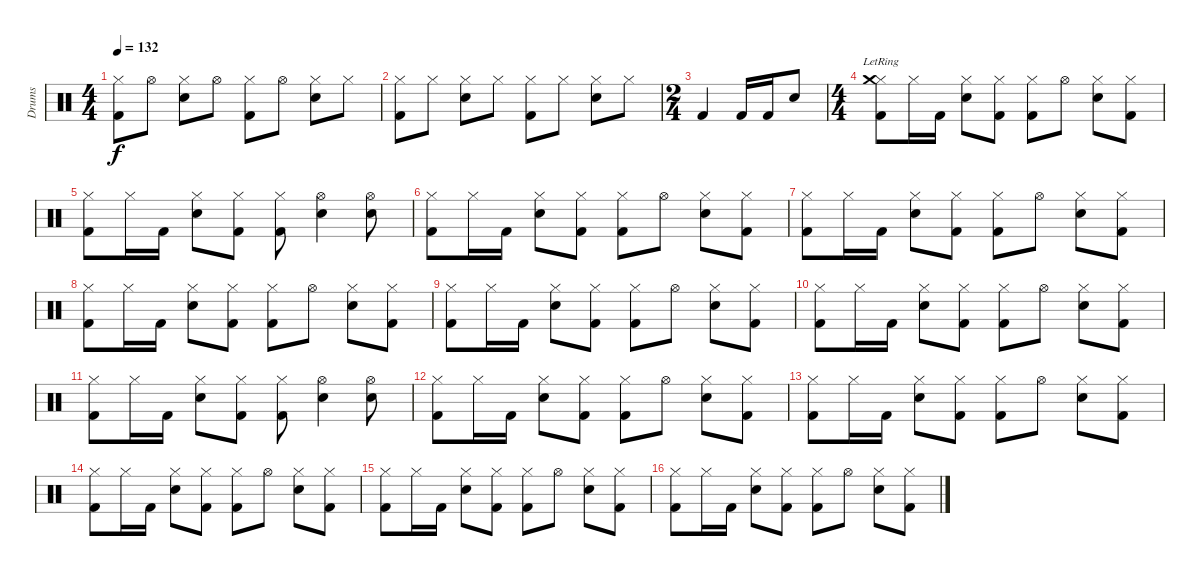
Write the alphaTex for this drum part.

\track ("Drums" "Drums") {instrument percussion}
\staff {score}
\articulation defaults
\ts (4 4)
\tempo 132
\clef neutral
\ks c
("Kick (hit) 2" "Hi-Hat (closed)").8{dy f} "Hi-Hat (open)".8 ("Electric Snare (hit)" "Hi-Hat (closed)").8 "Hi-Hat (open)".8 ("Kick (hit) 2" "Hi-Hat (closed)").8 "Hi-Hat (open)".8 ("Electric Snare (hit)" "Hi-Hat (closed)").8 "Hi-Hat (closed)".8 |
("Kick (hit) 2" "Hi-Hat (closed)").8 "Hi-Hat (closed)".8 ("Electric Snare (hit)" "Hi-Hat (closed)").8 "Hi-Hat (closed)".8 ("Kick (hit) 2" "Hi-Hat (closed)").8 "Hi-Hat (closed)".8 ("Electric Snare (hit)" "Hi-Hat (closed)").8 "Hi-Hat (closed)".8 |
\ts (2 4)
"Kick (hit) 2".4 "Kick (hit) 2".16 "Kick (hit) 2".16 "Electric Snare (hit)".8 |
\ts (4 4)
("Kick (hit) 2" "Hi-Hat (closed)" "Crash medium (hit)"{lr}).8 "Hi-Hat (closed)".16 "Kick (hit) 2".16 ("Electric Snare (hit)" "Hi-Hat (closed)").8 ("Kick (hit) 2" "Hi-Hat (closed)").8 ("Kick (hit) 2" "Hi-Hat (closed)").8 "Hi-Hat (open)".8 ("Electric Snare (hit)" "Hi-Hat (closed)").8 ("Kick (hit) 2" "Hi-Hat (closed)").8 |
("Kick (hit) 2" "Hi-Hat (closed)").8 "Hi-Hat (closed)".16 "Kick (hit) 2".16 ("Electric Snare (hit)" "Hi-Hat (closed)").8 ("Kick (hit) 2" "Hi-Hat (closed)").8 ("Kick (hit) 2" "Hi-Hat (closed)").8 ("Electric Snare (hit)" "Hi-Hat (open)").4 ("Electric Snare (hit)" "Hi-Hat (open)").8 |
("Kick (hit) 2" "Hi-Hat (closed)").8 "Hi-Hat (closed)".16 "Kick (hit) 2".16 ("Electric Snare (hit)" "Hi-Hat (closed)").8 ("Kick (hit) 2" "Hi-Hat (closed)").8 ("Kick (hit) 2" "Hi-Hat (closed)").8 "Hi-Hat (open)".8 ("Electric Snare (hit)" "Hi-Hat (closed)").8 ("Kick (hit) 2" "Hi-Hat (closed)").8 |
("Kick (hit) 2" "Hi-Hat (closed)").8 "Hi-Hat (closed)".16 "Kick (hit) 2".16 ("Electric Snare (hit)" "Hi-Hat (closed)").8 ("Kick (hit) 2" "Hi-Hat (closed)").8 ("Kick (hit) 2" "Hi-Hat (closed)").8 "Hi-Hat (open)".8 ("Electric Snare (hit)" "Hi-Hat (closed)").8 ("Kick (hit) 2" "Hi-Hat (closed)").8 |
("Kick (hit) 2" "Hi-Hat (closed)").8 "Hi-Hat (closed)".16 "Kick (hit) 2".16 ("Electric Snare (hit)" "Hi-Hat (closed)").8 ("Kick (hit) 2" "Hi-Hat (closed)").8 ("Kick (hit) 2" "Hi-Hat (closed)").8 "Hi-Hat (open)".8 ("Electric Snare (hit)" "Hi-Hat (closed)").8 ("Kick (hit) 2" "Hi-Hat (closed)").8 |
("Kick (hit) 2" "Hi-Hat (closed)").8 "Hi-Hat (closed)".16 "Kick (hit) 2".16 ("Electric Snare (hit)" "Hi-Hat (closed)").8 ("Kick (hit) 2" "Hi-Hat (closed)").8 ("Kick (hit) 2" "Hi-Hat (closed)").8 "Hi-Hat (open)".8 ("Electric Snare (hit)" "Hi-Hat (closed)").8 ("Kick (hit) 2" "Hi-Hat (closed)").8 |
("Kick (hit) 2" "Hi-Hat (closed)").8 "Hi-Hat (closed)".16 "Kick (hit) 2".16 ("Electric Snare (hit)" "Hi-Hat (closed)").8 ("Kick (hit) 2" "Hi-Hat (closed)").8 ("Kick (hit) 2" "Hi-Hat (closed)").8 "Hi-Hat (open)".8 ("Electric Snare (hit)" "Hi-Hat (closed)").8 ("Kick (hit) 2" "Hi-Hat (closed)").8 |
("Kick (hit) 2" "Hi-Hat (closed)").8 "Hi-Hat (closed)".16 "Kick (hit) 2".16 ("Electric Snare (hit)" "Hi-Hat (closed)").8 ("Kick (hit) 2" "Hi-Hat (closed)").8 ("Kick (hit) 2" "Hi-Hat (closed)").8 ("Electric Snare (hit)" "Hi-Hat (open)").4 ("Electric Snare (hit)" "Hi-Hat (open)").8 |
("Kick (hit) 2" "Hi-Hat (closed)").8 "Hi-Hat (closed)".16 "Kick (hit) 2".16 ("Electric Snare (hit)" "Hi-Hat (closed)").8 ("Kick (hit) 2" "Hi-Hat (closed)").8 ("Kick (hit) 2" "Hi-Hat (closed)").8 "Hi-Hat (open)".8 ("Electric Snare (hit)" "Hi-Hat (closed)").8 ("Kick (hit) 2" "Hi-Hat (closed)").8 |
("Kick (hit) 2" "Hi-Hat (closed)").8 "Hi-Hat (closed)".16 "Kick (hit) 2".16 ("Electric Snare (hit)" "Hi-Hat (closed)").8 ("Kick (hit) 2" "Hi-Hat (closed)").8 ("Kick (hit) 2" "Hi-Hat (closed)").8 "Hi-Hat (open)".8 ("Electric Snare (hit)" "Hi-Hat (closed)").8 ("Kick (hit) 2" "Hi-Hat (closed)").8 |
("Kick (hit) 2" "Hi-Hat (closed)").8 "Hi-Hat (closed)".16 "Kick (hit) 2".16 ("Electric Snare (hit)" "Hi-Hat (closed)").8 ("Kick (hit) 2" "Hi-Hat (closed)").8 ("Kick (hit) 2" "Hi-Hat (closed)").8 "Hi-Hat (open)".8 ("Electric Snare (hit)" "Hi-Hat (closed)").8 ("Kick (hit) 2" "Hi-Hat (closed)").8 |
("Kick (hit) 2" "Hi-Hat (closed)").8 "Hi-Hat (closed)".16 "Kick (hit) 2".16 ("Electric Snare (hit)" "Hi-Hat (closed)").8 ("Kick (hit) 2" "Hi-Hat (closed)").8 ("Kick (hit) 2" "Hi-Hat (closed)").8 "Hi-Hat (open)".8 ("Electric Snare (hit)" "Hi-Hat (closed)").8 ("Kick (hit) 2" "Hi-Hat (closed)").8 |
("Kick (hit) 2" "Hi-Hat (closed)").8 "Hi-Hat (closed)".16 "Kick (hit) 2".16 ("Electric Snare (hit)" "Hi-Hat (closed)").8 ("Kick (hit) 2" "Hi-Hat (closed)").8 ("Kick (hit) 2" "Hi-Hat (closed)").8 "Hi-Hat (open)".8 ("Electric Snare (hit)" "Hi-Hat (closed)").8 ("Kick (hit) 2" "Hi-Hat (closed)").8
